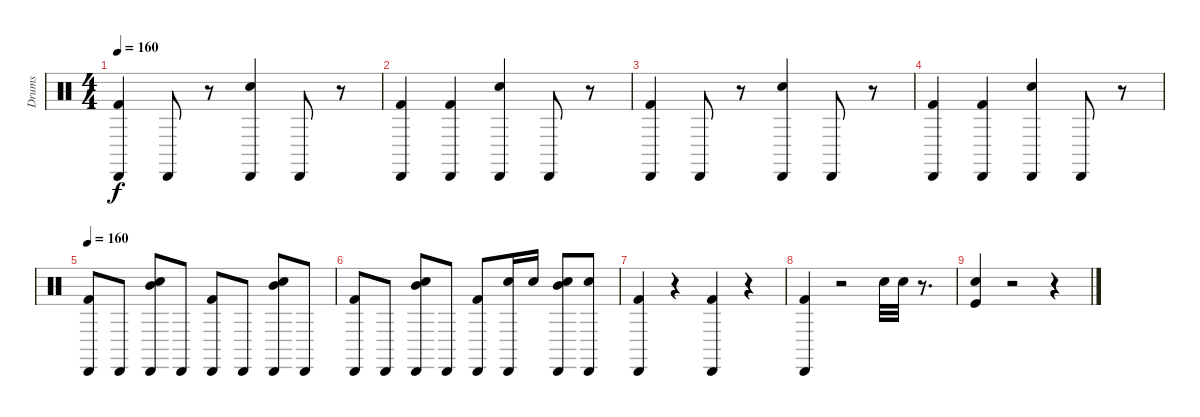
\track ("Drums" "Drums") {instrument percussion}
\staff {score}
\articulation defaults
\ts (4 4)
\tempo 160
\clef neutral
\ks c
("Cabasa (hit)" "Kick (hit) 2").4{dy f} "Cabasa (hit)".8 r.8 ("Cabasa (hit)" "Electric Snare (hit)").4 "Cabasa (hit)".8 r.8 |
("Cabasa (hit)" "Kick (hit) 2").4 ("Cabasa (hit)" "Kick (hit) 2").4 ("Cabasa (hit)" "Electric Snare (hit)").4 "Cabasa (hit)".8 r.8 |
("Cabasa (hit)" "Kick (hit) 2").4 "Cabasa (hit)".8 r.8 ("Cabasa (hit)" "Electric Snare (hit)").4 "Cabasa (hit)".8 r.8 |
("Cabasa (hit)" "Kick (hit) 2").4 ("Cabasa (hit)" "Kick (hit) 2").4 ("Cabasa (hit)" "Electric Snare (hit)").4 "Cabasa (hit)".8 r.8 |
\tempo 160
("Kick (hit) 2" "Cabasa (hit)").8 "Cabasa (hit)".8 ("Electric Snare (hit)" "Mid Tom (hit)" "Cabasa (hit)").8 "Cabasa (hit)".8 ("Cabasa (hit)" "Kick (hit) 2").8 "Cabasa (hit)".8 ("Cabasa (hit)" "Electric Snare (hit)" "Mid Tom (hit)").8 "Cabasa (hit)".8 |
("Cabasa (hit)" "Kick (hit) 2").8 "Cabasa (hit)".8 ("Electric Snare (hit)" "Cabasa (hit)" "Mid Tom (hit)").8 "Cabasa (hit)".8 ("Cabasa (hit)" "Kick (hit) 2").8 ("Electric Snare (hit)" "Cabasa (hit)").16 "Electric Snare (hit)".16 ("Electric Snare (hit)" "Mid Tom (hit)" "Cabasa (hit)").8 ("Electric Snare (hit)" "Cabasa (hit)").8 |
("Kick (hit) 2" "Cabasa (hit)").4 r.4 ("Kick (hit) 2" "Cabasa (hit)").4 r.4 |
("Kick (hit) 2" "Cabasa (hit)").4 r.2 "Electric Snare (hit)".32 "Electric Snare (hit)".32 r.8{d} |
("Electric Snare (hit)" "Kick (hit)").4 r.2 r.4
